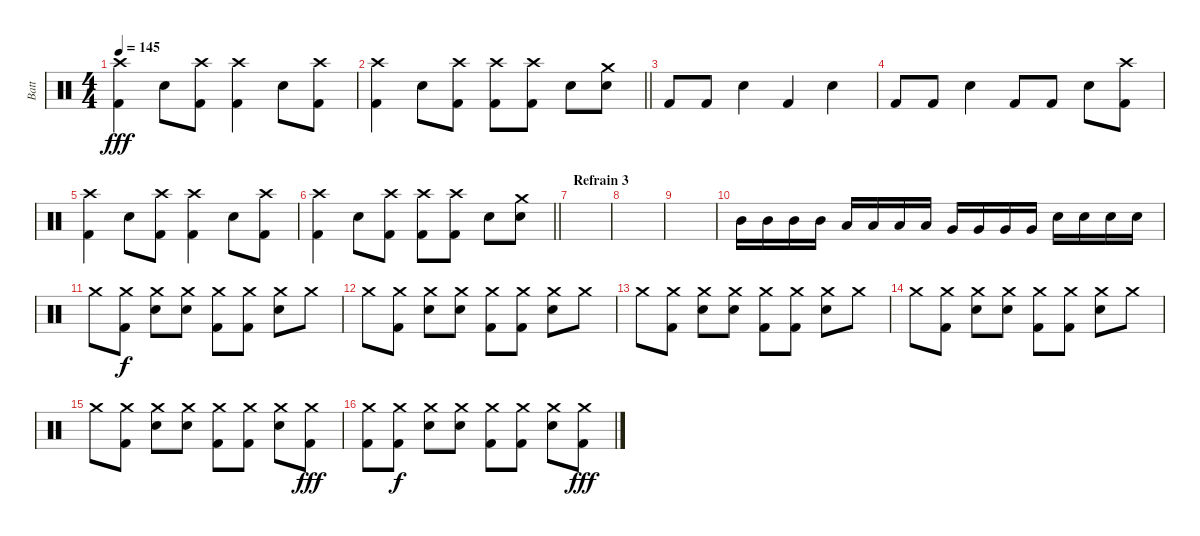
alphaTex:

\track ("Batt" "Batt") {instrument percussion}
\staff {score}
\articulation defaults
\ts (4 4)
\tempo 145
\clef neutral
\ks c
("Crash high (hit)" "Kick (hit) 2").4{dy fff} "Snare (hit) 2".8 ("Crash high (hit)" "Kick (hit) 2").8 ("Crash high (hit)" "Kick (hit) 2").4 "Snare (hit) 2".8 ("Crash high (hit)" "Kick (hit) 2").8 |
\barLineRight lightlight
("Crash high (hit)" "Kick (hit) 2").4 "Snare (hit) 2".8 ("Crash high (hit)" "Kick (hit) 2").8 ("Crash high (hit)" "Kick (hit) 2").8 ("Crash high (hit)" "Kick (hit) 2").8 "Snare (hit) 2".8 ("Crash medium (hit)" "Snare (hit) 2").8 |
"Kick (hit) 2".8 "Kick (hit) 2".8 "Snare (hit) 2".4 "Kick (hit) 2".4 "Snare (hit) 2".4 |
"Kick (hit) 2".8 "Kick (hit) 2".8 "Snare (hit) 2".4 "Kick (hit) 2".8 "Kick (hit) 2".8 "Snare (hit) 2".8 ("Crash high (hit)" "Kick (hit) 2").8 |
("Crash high (hit)" "Kick (hit) 2").4 "Snare (hit) 2".8 ("Crash high (hit)" "Kick (hit) 2").8 ("Crash high (hit)" "Kick (hit) 2").4 "Snare (hit) 2".8 ("Crash high (hit)" "Kick (hit) 2").8 |
\barLineRight lightlight
("Crash high (hit)" "Kick (hit) 2").4 "Snare (hit) 2".8 ("Crash high (hit)" "Kick (hit) 2").8 ("Crash high (hit)" "Kick (hit) 2").8 ("Crash high (hit)" "Kick (hit) 2").8 "Snare (hit) 2".8 ("Crash medium (hit)" "Snare (hit) 2").8 |
\section ("" "Refrain 3")
|
|
|
"Mid Tom (hit)".16 "Mid Tom (hit)".16 "Mid Tom (hit)".16 "Mid Tom (hit)".16 "Low Tom (hit)".16 "Low Tom (hit)".16 "Low Tom (hit)".16 "Low Tom (hit)".16 "Very Low Tom (hit)".16 "Very Low Tom (hit)".16 "Very Low Tom (hit)".16 "Very Low Tom (hit)".16 "Snare (hit) 2".16 "Snare (hit) 2".16 "Snare (hit) 2".16 "Snare (hit) 2".16 |
"Crash medium (hit)".8 ("Crash medium (hit)" "Kick (hit) 2").8{dy f} ("Crash medium (hit)" "Snare (hit) 2").8 ("Crash medium (hit)" "Snare (hit) 2").8 ("Crash medium (hit)" "Kick (hit) 2").8 ("Crash medium (hit)" "Kick (hit) 2").8 ("Crash medium (hit)" "Snare (hit) 2").8 "Crash medium (hit)".8 |
"Crash medium (hit)".8 ("Crash medium (hit)" "Kick (hit) 2").8 ("Crash medium (hit)" "Snare (hit) 2").8 ("Crash medium (hit)" "Snare (hit) 2").8 ("Crash medium (hit)" "Kick (hit) 2").8 ("Crash medium (hit)" "Kick (hit) 2").8 ("Crash medium (hit)" "Snare (hit) 2").8 "Crash medium (hit)".8 |
"Crash medium (hit)".8 ("Crash medium (hit)" "Kick (hit) 2").8 ("Crash medium (hit)" "Snare (hit) 2").8 ("Crash medium (hit)" "Snare (hit) 2").8 ("Crash medium (hit)" "Kick (hit) 2").8 ("Crash medium (hit)" "Kick (hit) 2").8 ("Crash medium (hit)" "Snare (hit) 2").8 "Crash medium (hit)".8 |
"Crash medium (hit)".8 ("Crash medium (hit)" "Kick (hit) 2").8 ("Crash medium (hit)" "Snare (hit) 2").8 ("Crash medium (hit)" "Snare (hit) 2").8 ("Crash medium (hit)" "Kick (hit) 2").8 ("Crash medium (hit)" "Kick (hit) 2").8 ("Crash medium (hit)" "Snare (hit) 2").8 "Crash medium (hit)".8 |
"Crash medium (hit)".8 ("Crash medium (hit)" "Kick (hit) 2").8 ("Crash medium (hit)" "Snare (hit) 2").8 ("Crash medium (hit)" "Snare (hit) 2").8 ("Crash medium (hit)" "Kick (hit) 2").8 ("Crash medium (hit)" "Kick (hit) 2").8 ("Crash medium (hit)" "Snare (hit) 2").8 ("Crash medium (hit)" "Kick (hit) 2").8{dy fff} |
("Crash medium (hit)" "Kick (hit) 2").8 ("Crash medium (hit)" "Kick (hit) 2").8{dy f} ("Crash medium (hit)" "Snare (hit) 2").8 ("Crash medium (hit)" "Snare (hit) 2").8 ("Crash medium (hit)" "Kick (hit) 2").8 ("Crash medium (hit)" "Kick (hit) 2").8 ("Crash medium (hit)" "Snare (hit) 2").8 ("Crash medium (hit)" "Kick (hit) 2").8{dy fff}
